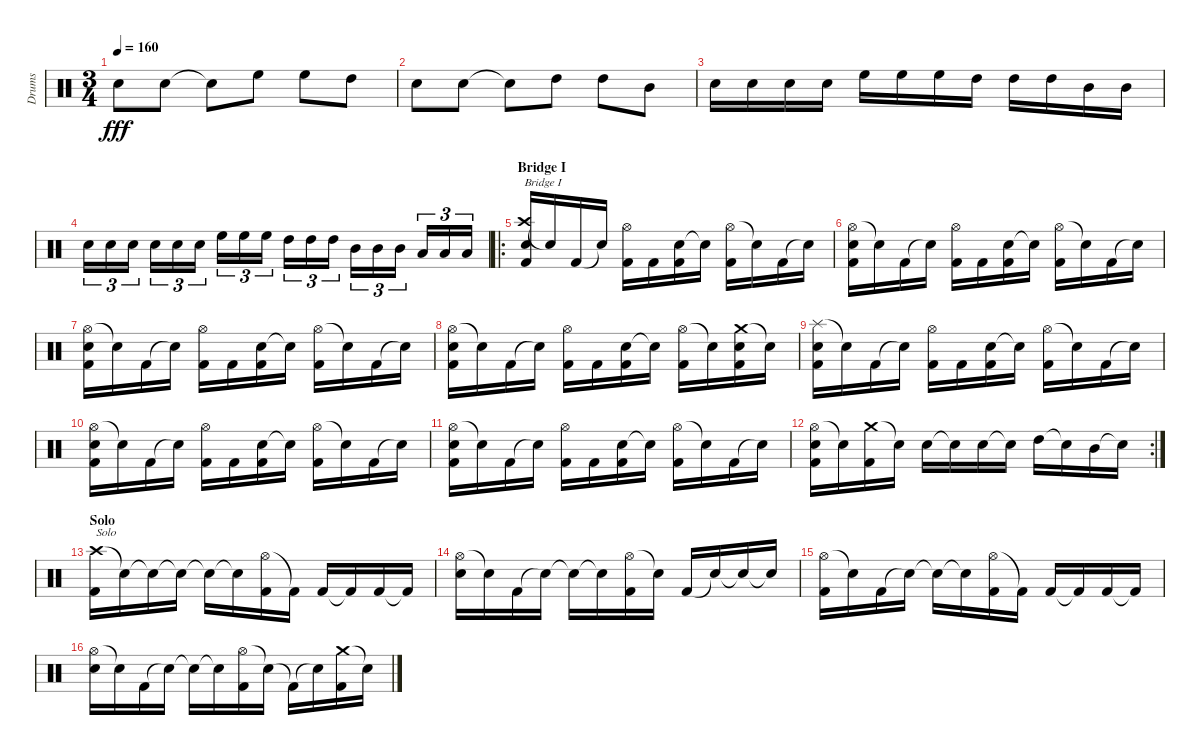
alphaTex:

\track ("Drums" "Drums") {instrument percussion}
\staff {score}
\articulation defaults
\ts (3 4)
\tempo 160
\clef neutral
\ks c "Electric Snare (hit)".8{dy fff} "Electric Snare (hit)".8 "Snare (hit)"{t}.8 "High Floor Tom (hit)".8 "High Floor Tom (hit)".8 "High Tom (hit)".8
|
"Electric Snare (hit)".8 "Electric Snare (hit)".8 "Snare (hit)"{t}.8 "High Tom (hit)".8 "High Tom (hit)".8 "Mid Tom (hit)".8 |
"Electric Snare (hit)".16 "Electric Snare (hit)".16 "Electric Snare (hit)".16 "Electric Snare (hit)".16 "High Floor Tom (hit)".16 "High Floor Tom (hit)".16 "High Floor Tom (hit)".16 "High Tom (hit)".16 "High Tom (hit)".16 "High Tom (hit)".16 "Mid Tom (hit)".16 "Mid Tom (hit)".16 |
"Electric Snare (hit)".16{tu (3 2)} "Electric Snare (hit)".16{tu (3 2)} "Electric Snare (hit)".16{tu (3 2)} "Electric Snare (hit)".16{tu (3 2)} "Electric Snare (hit)".16{tu (3 2)} "Electric Snare (hit)".16{tu (3 2)} "High Floor Tom (hit)".16{tu (3 2)} "High Floor Tom (hit)".16{tu (3 2)} "High Floor Tom (hit)".16{tu (3 2)} "High Tom (hit)".16{tu (3 2)} "High Tom (hit)".16{tu (3 2)} "High Tom (hit)".16{tu (3 2)} "Mid Tom (hit)".16{tu (3 2)} "Mid Tom (hit)".16{tu (3 2)} "Mid Tom (hit)".16{tu (3 2)} "Low Tom (hit)".16{tu (3 2)} "Low Tom (hit)".16{tu (3 2)} "Low Tom (hit)".16{tu (3 2)} |
\ro
\section ("" "Bridge I")
("Crash high (hit)" "Electric Snare (hit)" "Kick (hit) 2").16{txt "Bridge I"} "Snare (hit)"{t}.16 "Kick (hit) 2".16 "Snare (hit)"{t}.16 ("Hi-Hat (open)" "Kick (hit) 2").16 "Kick (hit) 2".16 ("Electric Snare (hit)" "Kick (hit) 2").16 "Snare (hit)"{t}.16 ("Hi-Hat (open)" "Kick (hit) 2").16 "Snare (hit)"{t}.16 "Kick (hit) 2".16 "Snare (hit)"{t}.16 |
("Hi-Hat (open)" "Electric Snare (hit)" "Kick (hit) 2").16 "Snare (hit)"{t}.16 "Kick (hit) 2".16 "Snare (hit)"{t}.16 ("Hi-Hat (open)" "Kick (hit) 2").16 "Kick (hit) 2".16 ("Electric Snare (hit)" "Kick (hit) 2").16 "Snare (hit)"{t}.16 ("Hi-Hat (open)" "Kick (hit) 2").16 "Snare (hit)"{t}.16 "Kick (hit) 2".16 "Snare (hit)"{t}.16 |
("Hi-Hat (open)" "Electric Snare (hit)" "Kick (hit) 2").16 "Snare (hit)"{t}.16 "Kick (hit) 2".16 "Snare (hit)"{t}.16 ("Hi-Hat (open)" "Kick (hit) 2").16 "Kick (hit) 2".16 ("Electric Snare (hit)" "Kick (hit) 2").16 "Snare (hit)"{t}.16 ("Hi-Hat (open)" "Kick (hit) 2").16 "Snare (hit)"{t}.16 "Kick (hit) 2".16 "Snare (hit)"{t}.16 |
("Hi-Hat (open)" "Electric Snare (hit)" "Kick (hit) 2").16 "Snare (hit)"{t}.16 "Kick (hit) 2".16 "Snare (hit)"{t}.16 ("Hi-Hat (open)" "Kick (hit) 2").16 "Kick (hit) 2".16 ("Electric Snare (hit)" "Kick (hit) 2").16 "Snare (hit)"{t}.16 ("Hi-Hat (open)" "Kick (hit) 2").16 "Snare (hit)"{t}.16 ("Crash medium (hit)" "Electric Snare (hit)" "Kick (hit) 2").16 "Snare (hit)"{t}.16 |
("Splash (hit)" "Electric Snare (hit)" "Kick (hit) 2").16 "Snare (hit)"{t}.16 "Kick (hit) 2".16 "Snare (hit)"{t}.16 ("Hi-Hat (open)" "Kick (hit) 2").16 "Kick (hit) 2".16 ("Electric Snare (hit)" "Kick (hit) 2").16 "Snare (hit)"{t}.16 ("Hi-Hat (open)" "Kick (hit) 2").16 "Snare (hit)"{t}.16 "Kick (hit) 2".16 "Snare (hit)"{t}.16 |
("Hi-Hat (open)" "Electric Snare (hit)" "Kick (hit) 2").16 "Snare (hit)"{t}.16 "Kick (hit) 2".16 "Snare (hit)"{t}.16 ("Hi-Hat (open)" "Kick (hit) 2").16 "Kick (hit) 2".16 ("Electric Snare (hit)" "Kick (hit) 2").16 "Snare (hit)"{t}.16 ("Hi-Hat (open)" "Kick (hit) 2").16 "Snare (hit)"{t}.16 "Kick (hit) 2".16 "Snare (hit)"{t}.16 |
("Hi-Hat (open)" "Electric Snare (hit)" "Kick (hit) 2").16 "Snare (hit)"{t}.16 "Kick (hit) 2".16 "Snare (hit)"{t}.16 ("Hi-Hat (open)" "Kick (hit) 2").16 "Kick (hit) 2".16 ("Electric Snare (hit)" "Kick (hit) 2").16 "Snare (hit)"{t}.16 ("Hi-Hat (open)" "Kick (hit) 2").16 "Snare (hit)"{t}.16 "Kick (hit) 2".16 "Snare (hit)"{t}.16 |
\rc 2
("Hi-Hat (open)" "Electric Snare (hit)" "Kick (hit) 2").16 "Snare (hit)"{t}.16 ("Crash medium (hit)" "Kick (hit) 2").16 "Snare (hit)"{t}.16 "Electric Snare (hit)".16 "Snare (hit)"{t}.16 "Electric Snare (hit)".16 "Snare (hit)"{t}.16 "High Tom (hit)".16 "Snare (hit)"{t}.16 "Mid Tom (hit)".16 "Snare (hit)"{t}.16 |
\section ("" "Solo")
("Crash high (hit)" "Kick (hit) 2").16{txt "Solo"} "Snare (hit)"{t}.16 "Snare (hit)"{t}.16 "Snare (hit)"{t}.16 "Snare (hit)"{t}.16 "Snare (hit)"{t}.16 ("Hi-Hat (open)" "Kick (hit) 2").16 "Kick (hit) 2"{t}.16 "Kick (hit) 2".16 "Kick (hit) 2"{t}.16 "Kick (hit) 2".16 "Kick (hit) 2"{t}.16 |
("Hi-Hat (open)" "Electric Snare (hit)").16 "Snare (hit)"{t}.16 "Kick (hit) 2".16 "Snare (hit)"{t}.16 "Snare (hit)"{t}.16 "Snare (hit)"{t}.16 ("Hi-Hat (open)" "Kick (hit) 2").16 "Snare (hit)"{t}.16 "Kick (hit) 2".16 "Snare (hit)"{t}.16 "Snare (hit)"{t}.16 "Snare (hit)"{t}.16 |
("Hi-Hat (open)" "Kick (hit) 2").16 "Snare (hit)"{t}.16 "Kick (hit) 2".16 "Snare (hit)"{t}.16 "Snare (hit)"{t}.16 "Snare (hit)"{t}.16 ("Hi-Hat (open)" "Kick (hit) 2").16 "Kick (hit) 2"{t}.16 "Kick (hit) 2".16 "Kick (hit) 2"{t}.16 "Kick (hit) 2".16 "Kick (hit) 2"{t}.16 |
("Hi-Hat (open)" "Electric Snare (hit)").16 "Snare (hit)"{t}.16 "Kick (hit) 2".16 "Snare (hit)"{t}.16 "Snare (hit)"{t}.16 "Snare (hit)"{t}.16 ("Hi-Hat (open)" "Kick (hit) 2").16 "Snare (hit)"{t}.16 "Kick (hit) 2"{t}.16 "Snare (hit)"{t}.16 ("Crash medium (hit)" "Kick (hit) 2").16 "Snare (hit)"{t}.16
